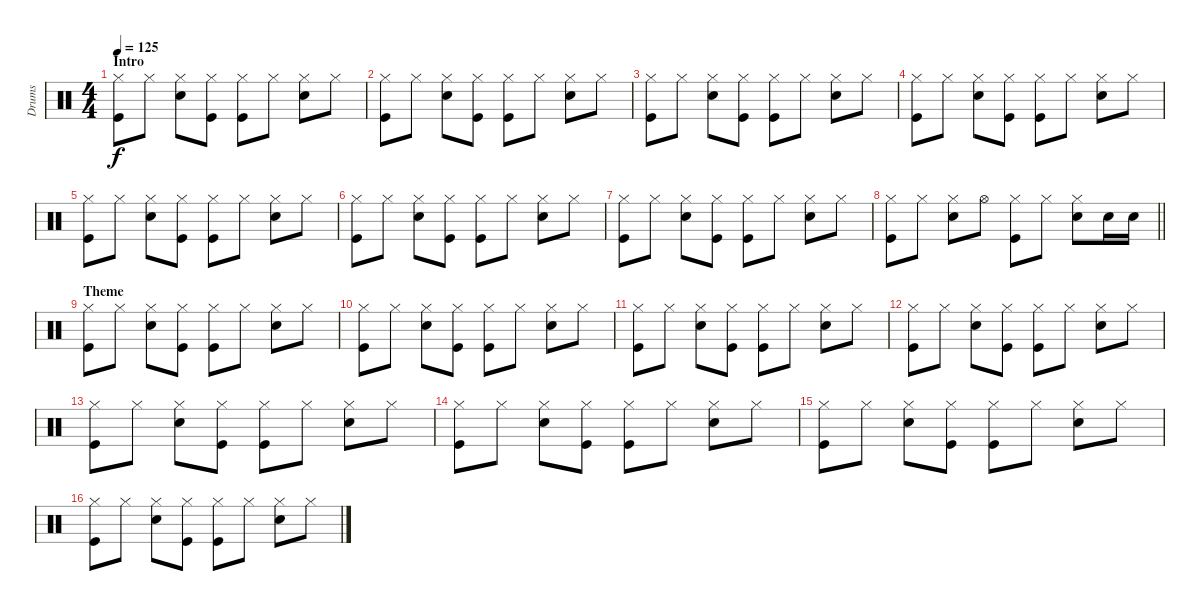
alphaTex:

\track ("Drums" "Drums") {instrument percussion}
\staff {score}
\articulation defaults
\ts (4 4)
\section ("" "Intro")
\tempo 125
\clef neutral
\ks c
("Hi-Hat (closed)" "Kick (hit)").8{dy f} "Hi-Hat (closed)".8 ("Hi-Hat (closed)" "Electric Snare (hit)").8 ("Hi-Hat (closed)" "Kick (hit)").8 ("Hi-Hat (closed)" "Kick (hit)").8 "Hi-Hat (closed)".8 ("Hi-Hat (closed)" "Electric Snare (hit)").8 "Hi-Hat (closed)".8 |
("Hi-Hat (closed)" "Kick (hit)").8 "Hi-Hat (closed)".8 ("Hi-Hat (closed)" "Electric Snare (hit)").8 ("Hi-Hat (closed)" "Kick (hit)").8 ("Hi-Hat (closed)" "Kick (hit)").8 "Hi-Hat (closed)".8 ("Hi-Hat (closed)" "Electric Snare (hit)").8 "Hi-Hat (closed)".8 |
("Hi-Hat (closed)" "Kick (hit)").8 "Hi-Hat (closed)".8 ("Hi-Hat (closed)" "Electric Snare (hit)").8 ("Hi-Hat (closed)" "Kick (hit)").8 ("Hi-Hat (closed)" "Kick (hit)").8 "Hi-Hat (closed)".8 ("Hi-Hat (closed)" "Electric Snare (hit)").8 "Hi-Hat (closed)".8 |
("Hi-Hat (closed)" "Kick (hit)").8 "Hi-Hat (closed)".8 ("Hi-Hat (closed)" "Electric Snare (hit)").8 ("Hi-Hat (closed)" "Kick (hit)").8 ("Hi-Hat (closed)" "Kick (hit)").8 "Hi-Hat (closed)".8 ("Hi-Hat (closed)" "Electric Snare (hit)").8 "Hi-Hat (closed)".8 |
("Hi-Hat (closed)" "Kick (hit)").8 "Hi-Hat (closed)".8 ("Hi-Hat (closed)" "Electric Snare (hit)").8 ("Hi-Hat (closed)" "Kick (hit)").8 ("Hi-Hat (closed)" "Kick (hit)").8 "Hi-Hat (closed)".8 ("Hi-Hat (closed)" "Electric Snare (hit)").8 "Hi-Hat (closed)".8 |
("Hi-Hat (closed)" "Kick (hit)").8 "Hi-Hat (closed)".8 ("Hi-Hat (closed)" "Electric Snare (hit)").8 ("Hi-Hat (closed)" "Kick (hit)").8 ("Hi-Hat (closed)" "Kick (hit)").8 "Hi-Hat (closed)".8 ("Hi-Hat (closed)" "Electric Snare (hit)").8 "Hi-Hat (closed)".8 |
("Hi-Hat (closed)" "Kick (hit)").8 "Hi-Hat (closed)".8 ("Hi-Hat (closed)" "Electric Snare (hit)").8 ("Hi-Hat (closed)" "Kick (hit)").8 ("Hi-Hat (closed)" "Kick (hit)").8 "Hi-Hat (closed)".8 ("Hi-Hat (closed)" "Electric Snare (hit)").8 "Hi-Hat (closed)".8 |
\barLineRight lightlight
("Hi-Hat (closed)" "Kick (hit)").8 "Hi-Hat (closed)".8 ("Hi-Hat (closed)" "Electric Snare (hit)").8 "Hi-Hat (open)".8 ("Hi-Hat (closed)" "Kick (hit)").8 "Hi-Hat (closed)".8 ("Hi-Hat (closed)" "Electric Snare (hit)").8 "Electric Snare (hit)".16 "Electric Snare (hit)".16 |
\section ("" "Theme")
("Hi-Hat (closed)" "Kick (hit)").8 "Hi-Hat (closed)".8 ("Hi-Hat (closed)" "Electric Snare (hit)").8 ("Hi-Hat (closed)" "Kick (hit)").8 ("Hi-Hat (closed)" "Kick (hit)").8 "Hi-Hat (closed)".8 ("Hi-Hat (closed)" "Electric Snare (hit)").8 "Hi-Hat (closed)".8 |
("Hi-Hat (closed)" "Kick (hit)").8 "Hi-Hat (closed)".8 ("Hi-Hat (closed)" "Electric Snare (hit)").8 ("Hi-Hat (closed)" "Kick (hit)").8 ("Hi-Hat (closed)" "Kick (hit)").8 "Hi-Hat (closed)".8 ("Hi-Hat (closed)" "Electric Snare (hit)").8 "Hi-Hat (closed)".8 |
("Hi-Hat (closed)" "Kick (hit)").8 "Hi-Hat (closed)".8 ("Hi-Hat (closed)" "Electric Snare (hit)").8 ("Hi-Hat (closed)" "Kick (hit)").8 ("Hi-Hat (closed)" "Kick (hit)").8 "Hi-Hat (closed)".8 ("Hi-Hat (closed)" "Electric Snare (hit)").8 "Hi-Hat (closed)".8 |
("Hi-Hat (closed)" "Kick (hit)").8 "Hi-Hat (closed)".8 ("Hi-Hat (closed)" "Electric Snare (hit)").8 ("Hi-Hat (closed)" "Kick (hit)").8 ("Hi-Hat (closed)" "Kick (hit)").8 "Hi-Hat (closed)".8 ("Hi-Hat (closed)" "Electric Snare (hit)").8 "Hi-Hat (closed)".8 |
("Hi-Hat (closed)" "Kick (hit)").8 "Hi-Hat (closed)".8 ("Hi-Hat (closed)" "Electric Snare (hit)").8 ("Hi-Hat (closed)" "Kick (hit)").8 ("Hi-Hat (closed)" "Kick (hit)").8 "Hi-Hat (closed)".8 ("Hi-Hat (closed)" "Electric Snare (hit)").8 "Hi-Hat (closed)".8 |
("Hi-Hat (closed)" "Kick (hit)").8 "Hi-Hat (closed)".8 ("Hi-Hat (closed)" "Electric Snare (hit)").8 ("Hi-Hat (closed)" "Kick (hit)").8 ("Hi-Hat (closed)" "Kick (hit)").8 "Hi-Hat (closed)".8 ("Hi-Hat (closed)" "Electric Snare (hit)").8 "Hi-Hat (closed)".8 |
("Hi-Hat (closed)" "Kick (hit)").8 "Hi-Hat (closed)".8 ("Hi-Hat (closed)" "Electric Snare (hit)").8 ("Hi-Hat (closed)" "Kick (hit)").8 ("Hi-Hat (closed)" "Kick (hit)").8 "Hi-Hat (closed)".8 ("Hi-Hat (closed)" "Electric Snare (hit)").8 "Hi-Hat (closed)".8 |
("Hi-Hat (closed)" "Kick (hit)").8 "Hi-Hat (closed)".8 ("Hi-Hat (closed)" "Electric Snare (hit)").8 ("Hi-Hat (closed)" "Kick (hit)").8 ("Hi-Hat (closed)" "Kick (hit)").8 "Hi-Hat (closed)".8 ("Hi-Hat (closed)" "Electric Snare (hit)").8 "Hi-Hat (closed)".8
